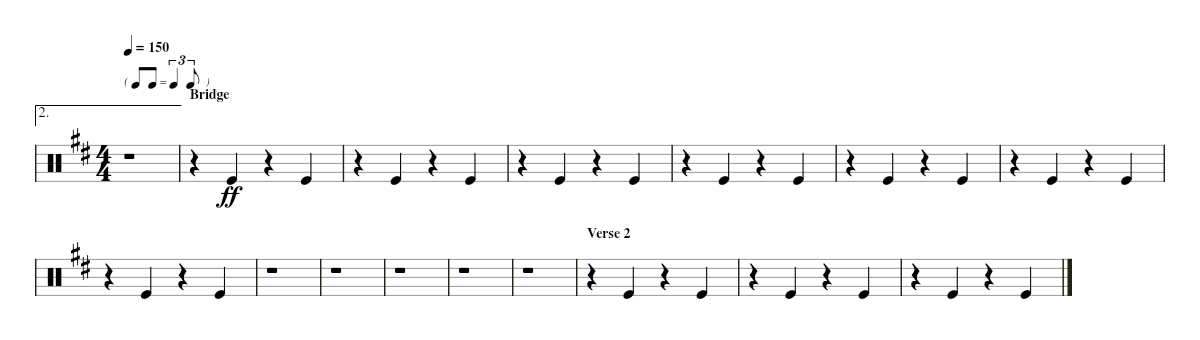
\bracketExtendMode nobrackets
\singleTrackTrackNamePolicy hidden
\multiTrackTrackNamePolicy hidden
\firstSystemTrackNameMode fullname
\firstSystemTrackNameOrientation horizontal
\otherSystemsTrackNameOrientation horizontal
\defaultBarNumberDisplay Hide
\track ("Hand Clap" "H-Clap") {instrument percussion}
\staff {score}
\articulation defaults
\ae 2
\ts (4 4)
\tf triplet8th
\tempo 150
\clef neutral
\ks d
r.1{dy ff} |
\section ("" "Bridge")
r.4 "Kick (hit)".4 r.4 "Kick (hit)".4 |
r.4 "Kick (hit)".4 r.4 "Kick (hit)".4 |
r.4 "Kick (hit)".4 r.4 "Kick (hit)".4 |
r.4 "Kick (hit)".4 r.4 "Kick (hit)".4 |
r.4 "Kick (hit)".4 r.4 "Kick (hit)".4 |
r.4 "Kick (hit)".4 r.4 "Kick (hit)".4 |
r.4 "Kick (hit)".4 r.4 "Kick (hit)".4 |
r.1 |
r.1 |
r.1 |
r.1 |
r.1 |
\section ("" "Verse 2")
r.4 "Kick (hit)".4 r.4 "Kick (hit)".4 |
r.4 "Kick (hit)".4 r.4 "Kick (hit)".4 |
r.4 "Kick (hit)".4 r.4 "Kick (hit)".4
